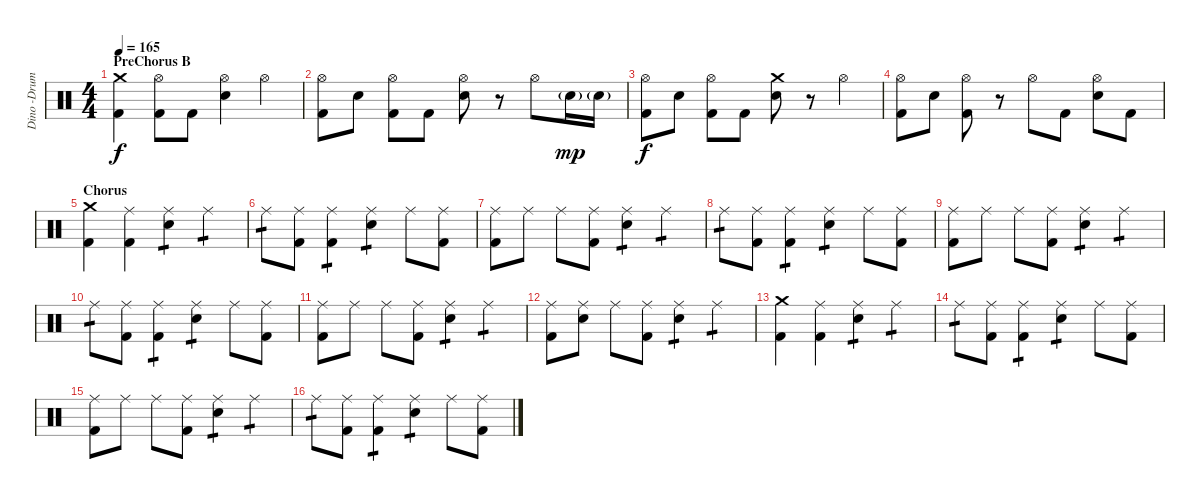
\track ("Dino -Drums" "Dino -Drum") {instrument percussion}
\staff {score}
\articulation defaults
\ts (4 4)
\section ("" "PreChorus B")
\tempo 165
\clef neutral
\ks c
("Crash medium (hit)" "Kick (hit) 2").4{dy f} ("Hi-Hat (open)" "Kick (hit) 2").8 "Kick (hit) 2".8 ("Hi-Hat (open)" "Electric Snare (hit)").4 "Hi-Hat (open)".4 |
("Hi-Hat (open)" "Kick (hit) 2").8 "Electric Snare (hit)".8 ("Hi-Hat (open)" "Kick (hit) 2").8 "Kick (hit) 2".8 ("Hi-Hat (open)" "Electric Snare (hit)").8 r.8 "Hi-Hat (open)".8 "Electric Snare (hit)"{g}.16{dy mp} "Electric Snare (hit)"{g}.16 |
("Hi-Hat (open)" "Kick (hit) 2").8{dy f} "Electric Snare (hit)".8 ("Hi-Hat (open)" "Kick (hit) 2").8 "Kick (hit) 2".8 ("Crash medium (hit)" "Electric Snare (hit)").8 r.8 "Hi-Hat (open)".4 |
("Hi-Hat (open)" "Kick (hit) 2").8 "Electric Snare (hit)".8 ("Hi-Hat (open)" "Kick (hit) 2").8 r.8 "Hi-Hat (open)".8 "Kick (hit) 2".8 ("Hi-Hat (open)" "Electric Snare (hit)").8 "Kick (hit) 2".8 |
\section ("" "Chorus")
("Crash medium (hit)" "Kick (hit) 2").4 ("Ride (middle)" "Kick (hit) 2").4 ("Ride (middle)" "Electric Snare (hit)").4{tp 1} "Ride (middle)".4{tp 1} |
"Ride (middle)".8{tp 1} ("Ride (middle)" "Kick (hit) 2").8 ("Ride (middle)" "Kick (hit) 2").4{tp 1} ("Ride (middle)" "Electric Snare (hit)").4{tp 1} "Ride (middle)".8 ("Ride (middle)" "Kick (hit) 2").8 |
("Ride (middle)" "Kick (hit) 2").8 "Ride (middle)".8 "Ride (middle)".8 ("Ride (middle)" "Kick (hit) 2").8 ("Ride (middle)" "Electric Snare (hit)").4{tp 1} "Ride (middle)".4{tp 1} |
"Ride (middle)".8{tp 1} ("Ride (middle)" "Kick (hit) 2").8 ("Ride (middle)" "Kick (hit) 2").4{tp 1} ("Ride (middle)" "Electric Snare (hit)").4{tp 1} "Ride (middle)".8 ("Ride (middle)" "Kick (hit) 2").8 |
("Ride (middle)" "Kick (hit) 2").8 "Ride (middle)".8 "Ride (middle)".8 ("Ride (middle)" "Kick (hit) 2").8 ("Ride (middle)" "Electric Snare (hit)").4{tp 1} "Ride (middle)".4{tp 1} |
"Ride (middle)".8{tp 1} ("Ride (middle)" "Kick (hit) 2").8 ("Ride (middle)" "Kick (hit) 2").4{tp 1} ("Ride (middle)" "Electric Snare (hit)").4{tp 1} "Ride (middle)".8 ("Ride (middle)" "Kick (hit) 2").8 |
("Ride (middle)" "Kick (hit) 2").8 "Ride (middle)".8 "Ride (middle)".8 ("Ride (middle)" "Kick (hit) 2").8 ("Ride (middle)" "Electric Snare (hit)").4{tp 1} "Ride (middle)".4{tp 1} |
("Ride (middle)" "Kick (hit) 2").8 ("Ride (middle)" "Electric Snare (hit)").8 "Ride (middle)".8 ("Ride (middle)" "Kick (hit) 2").8 ("Ride (middle)" "Electric Snare (hit)").4{tp 1} "Ride (middle)".4{tp 1} |
("Crash medium (hit)" "Kick (hit) 2").4 ("Ride (middle)" "Kick (hit) 2").4 ("Ride (middle)" "Electric Snare (hit)").4{tp 1} "Ride (middle)".4{tp 1} |
"Ride (middle)".8{tp 1} ("Ride (middle)" "Kick (hit) 2").8 ("Ride (middle)" "Kick (hit) 2").4{tp 1} ("Ride (middle)" "Electric Snare (hit)").4{tp 1} "Ride (middle)".8 ("Ride (middle)" "Kick (hit) 2").8 |
("Ride (middle)" "Kick (hit) 2").8 "Ride (middle)".8 "Ride (middle)".8 ("Ride (middle)" "Kick (hit) 2").8 ("Ride (middle)" "Electric Snare (hit)").4{tp 1} "Ride (middle)".4{tp 1} |
"Ride (middle)".8{tp 1} ("Ride (middle)" "Kick (hit) 2").8 ("Ride (middle)" "Kick (hit) 2").4{tp 1} ("Ride (middle)" "Electric Snare (hit)").4{tp 1} "Ride (middle)".8 ("Ride (middle)" "Kick (hit) 2").8
